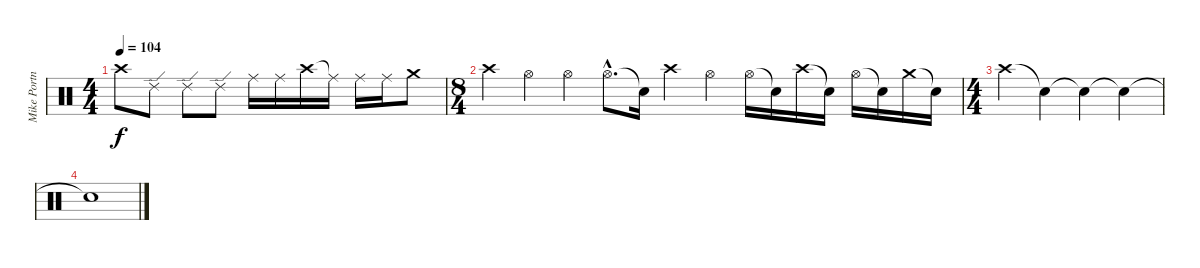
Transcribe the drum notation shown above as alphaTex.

\track ("Mike Portnoy" "Mike Portn") {instrument percussion}
\staff {score}
\articulation defaults
\ts (4 4)
\tempo 104
\clef neutral
\ks c "Crash high (hit)".8{dy f} "Ride (edge) 2".8 "Ride (edge) 2".8 "Ride (edge) 2".8 "Ride (middle)".16 "Ride (middle)".16 "Crash high (hit)".16 "Ride (middle)"{t}.16 "Ride (middle)".16 "Ride (middle)".16 "Crash medium (hit)".8
|
\ts (8 4)
"Crash high (hit)".4 "Hi-Hat (open)".4 "Hi-Hat (open)".4 "Hi-Hat (open)"{hac}.8{d} "Snare (hit)"{t}.16 "Crash high (hit)".4 "Hi-Hat (open)".4 "Hi-Hat (open)".16 "Snare (hit)"{t}.16 "Crash high (hit)".16 "Snare (hit)"{t}.16 "Hi-Hat (open)".16 "Snare (hit)"{t}.16 "Crash medium (hit)".16 "Snare (hit)"{t}.16 |
\ts (4 4)
"Crash high (hit)".4 "Snare (hit)"{t}.4 "Snare (hit)"{t}.4 "Snare (hit)"{t}.4 |
"Snare (hit)"{t}.1
